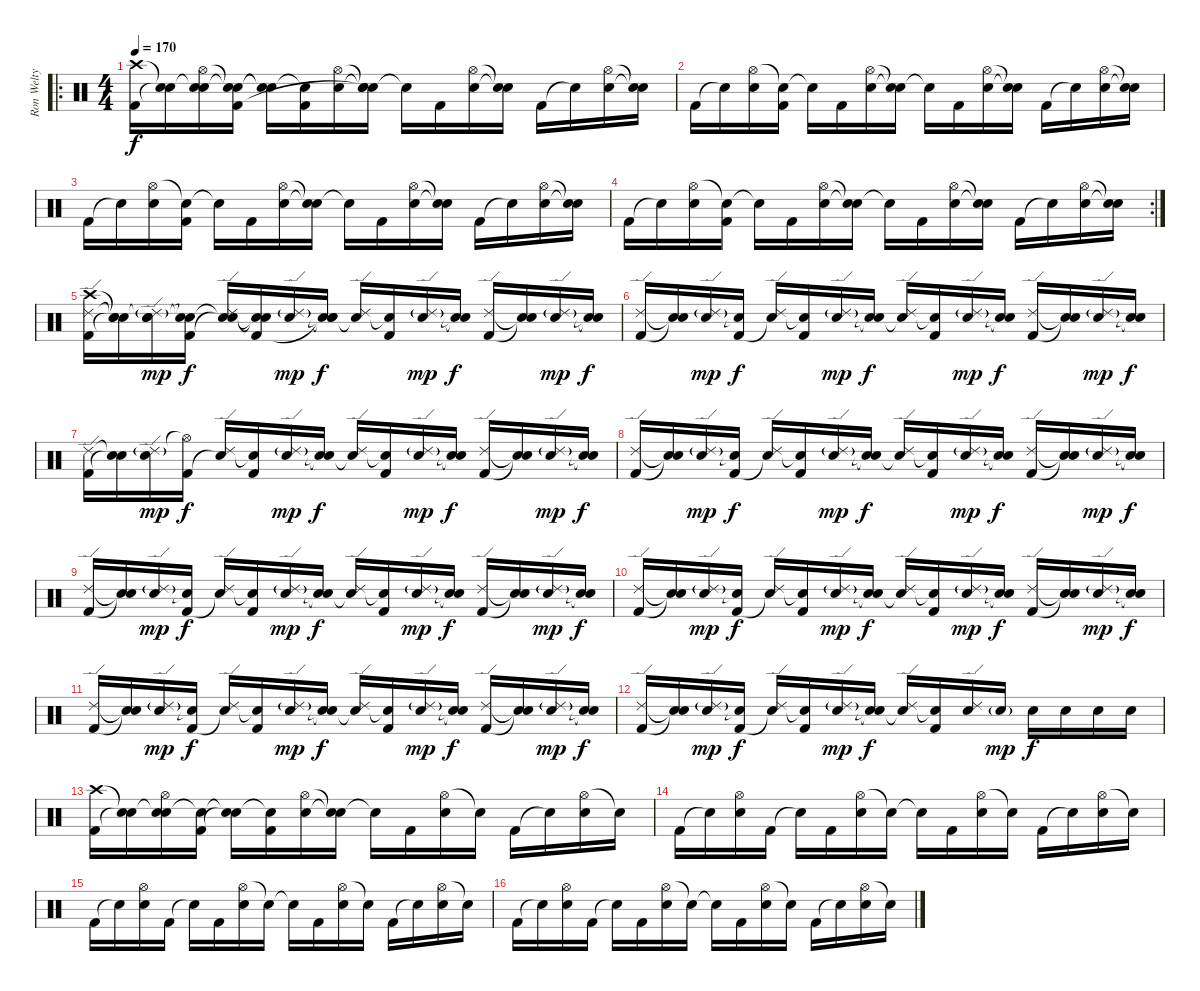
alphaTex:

\track ("Ron Welty" "Ron Welty") {instrument percussion}
\staff {score}
\articulation defaults
\ro
\ts (4 4)
\tempo 170
\clef neutral
\ks c
("Crash high (hit)" "Kick (hit) 2").16{dy f} ("Snare (hit)"{t} "Snare (hit)"{t}).16 ("Snare (hit)"{t} "Hi-Hat (open)" "Electric Snare (hit)").16 ("Snare (hit)"{t} "Snare (hit)"{t} "Kick (hit) 2").16 ("Snare (hit)"{t} "Snare (hit)"{t}).16 ("Snare (hit)"{t} "Kick (hit) 2").16 ("Hi-Hat (open)" "Electric Snare (hit)").16 ("Snare (hit)"{t} "Snare (hit)"{t} "Snare (hit)"{t}).16 "Snare (hit)"{t}.16 "Kick (hit) 2".16 ("Hi-Hat (open)" "Electric Snare (hit)").16 ("Snare (hit)"{t} "Snare (hit)"{t}).16 "Kick (hit) 2".16 "Snare (hit)"{t}.16 ("Hi-Hat (open)" "Electric Snare (hit)").16 ("Snare (hit)"{t} "Snare (hit)"{t}).16 |
"Kick (hit) 2".16 "Snare (hit)"{t}.16 ("Hi-Hat (open)" "Electric Snare (hit)").16 ("Snare (hit)"{t} "Kick (hit) 2").16 "Snare (hit)"{t}.16 "Kick (hit) 2".16 ("Hi-Hat (open)" "Electric Snare (hit)").16 ("Snare (hit)"{t} "Snare (hit)"{t}).16 "Snare (hit)"{t}.16 "Kick (hit) 2".16 ("Hi-Hat (open)" "Electric Snare (hit)").16 ("Snare (hit)"{t} "Snare (hit)"{t}).16 "Kick (hit) 2".16 "Snare (hit)"{t}.16 ("Hi-Hat (open)" "Electric Snare (hit)").16 ("Snare (hit)"{t} "Snare (hit)"{t}).16 |
"Kick (hit) 2".16 "Snare (hit)"{t}.16 ("Hi-Hat (open)" "Electric Snare (hit)").16 ("Snare (hit)"{t} "Kick (hit) 2").16 "Snare (hit)"{t}.16 "Kick (hit) 2".16 ("Hi-Hat (open)" "Electric Snare (hit)").16 ("Snare (hit)"{t} "Snare (hit)"{t}).16 "Snare (hit)"{t}.16 "Kick (hit) 2".16 ("Hi-Hat (open)" "Electric Snare (hit)").16 ("Snare (hit)"{t} "Snare (hit)"{t}).16 "Kick (hit) 2".16 "Snare (hit)"{t}.16 ("Hi-Hat (open)" "Electric Snare (hit)").16 ("Snare (hit)"{t} "Snare (hit)"{t}).16 |
\rc 2 "Kick (hit) 2".16 "Snare (hit)"{t}.16
("Hi-Hat (open)" "Electric Snare (hit)").16 ("Snare (hit)"{t} "Kick (hit) 2").16 "Snare (hit)"{t}.16 "Kick (hit) 2".16 ("Hi-Hat (open)" "Electric Snare (hit)").16 ("Snare (hit)"{t} "Snare (hit)"{t}).16 "Snare (hit)"{t}.16 "Kick (hit) 2".16 ("Hi-Hat (open)" "Electric Snare (hit)").16 ("Snare (hit)"{t} "Snare (hit)"{t}).16 "Kick (hit) 2".16 "Snare (hit)"{t}.16 ("Hi-Hat (open)" "Electric Snare (hit)").16 ("Snare (hit)"{t} "Snare (hit)"{t}).16 |
("Crash high (hit)" "Ride (edge) 2" "Kick (hit) 2").16 ("Snare (hit)"{t} "Snare (hit)"{t} "Snare (hit)"{t}).16 ("Snare (hit)"{t} "Ride (edge) 2"{g} "Electric Snare (hit)").16{dy mp} ("Snare (hit)"{t} "Snare (hit)"{t} "Kick (hit) 2").16{dy f} ("Snare (hit)"{t} "Ride (edge) 2" "Snare (hit)"{t}).16 ("Snare (hit)"{t} "Snare (hit)"{t} "Kick (hit) 2").16 ("Ride (edge) 2"{g} "Electric Snare (hit)").16{dy mp} ("Snare (hit)"{t} "Snare (hit)"{t} "Snare (hit)"{t}).16{dy f} ("Ride (edge) 2" "Snare (hit)"{t}).16 ("Snare (hit)"{t} "Kick (hit) 2").16 ("Ride (edge) 2"{g} "Electric Snare (hit)").16{dy mp} ("Snare (hit)"{t} "Snare (hit)"{t}).16{dy f} ("Ride (edge) 2" "Kick (hit) 2").16 ("Snare (hit)"{t} "Snare (hit)"{t}).16 ("Ride (edge) 2"{g} "Electric Snare (hit)").16{dy mp} ("Snare (hit)"{t} "Snare (hit)"{t}).16{dy f} |
("Ride (edge) 2" "Kick (hit) 2").16 ("Snare (hit)"{t} "Snare (hit)"{t}).16 ("Ride (edge) 2"{g} "Electric Snare (hit)").16{dy mp} ("Snare (hit)"{t} "Kick (hit) 2").16{dy f} ("Ride (edge) 2" "Snare (hit)"{t}).16 ("Snare (hit)"{t} "Kick (hit) 2").16 ("Ride (edge) 2"{g} "Electric Snare (hit)").16{dy mp} ("Snare (hit)"{t} "Snare (hit)"{t}).16{dy f} ("Ride (edge) 2" "Snare (hit)"{t}).16 ("Snare (hit)"{t} "Kick (hit) 2").16 ("Ride (edge) 2"{g} "Electric Snare (hit)").16{dy mp} ("Snare (hit)"{t} "Snare (hit)"{t}).16{dy f} ("Ride (edge) 2" "Kick (hit) 2").16 ("Snare (hit)"{t} "Snare (hit)"{t}).16 ("Ride (edge) 2"{g} "Electric Snare (hit)").16{dy mp} ("Snare (hit)"{t} "Snare (hit)"{t}).16{dy f} |
("Ride (edge) 2" "Kick (hit) 2").16 ("Snare (hit)"{t} "Snare (hit)"{t}).16 ("Ride (edge) 2"{g} "Electric Snare (hit)").16{dy mp} ("Hi-Hat (open)"{t} "Kick (hit) 2").16{dy f} ("Ride (edge) 2" "Snare (hit)"{t}).16 ("Snare (hit)"{t} "Kick (hit) 2").16 ("Ride (edge) 2"{g} "Electric Snare (hit)").16{dy mp} ("Snare (hit)"{t} "Snare (hit)"{t}).16{dy f} ("Ride (edge) 2" "Snare (hit)"{t}).16 ("Snare (hit)"{t} "Kick (hit) 2").16 ("Ride (edge) 2"{g} "Electric Snare (hit)").16{dy mp} ("Snare (hit)"{t} "Snare (hit)"{t}).16{dy f} ("Ride (edge) 2" "Kick (hit) 2").16 ("Snare (hit)"{t} "Snare (hit)"{t}).16 ("Ride (edge) 2"{g} "Electric Snare (hit)").16{dy mp} ("Snare (hit)"{t} "Snare (hit)"{t}).16{dy f} |
("Ride (edge) 2" "Kick (hit) 2").16 ("Snare (hit)"{t} "Snare (hit)"{t}).16 ("Ride (edge) 2"{g} "Electric Snare (hit)").16{dy mp} ("Snare (hit)"{t} "Kick (hit) 2").16{dy f} ("Ride (edge) 2" "Snare (hit)"{t}).16 ("Snare (hit)"{t} "Kick (hit) 2").16 ("Ride (edge) 2"{g} "Electric Snare (hit)").16{dy mp} ("Snare (hit)"{t} "Snare (hit)"{t}).16{dy f} ("Ride (edge) 2" "Snare (hit)"{t}).16 ("Snare (hit)"{t} "Kick (hit) 2").16 ("Ride (edge) 2"{g} "Electric Snare (hit)").16{dy mp} ("Snare (hit)"{t} "Snare (hit)"{t}).16{dy f} ("Ride (edge) 2" "Kick (hit) 2").16 ("Snare (hit)"{t} "Snare (hit)"{t}).16 ("Ride (edge) 2"{g} "Electric Snare (hit)").16{dy mp} ("Snare (hit)"{t} "Snare (hit)"{t}).16{dy f} |
("Ride (edge) 2" "Kick (hit) 2").16 ("Snare (hit)"{t} "Snare (hit)"{t}).16 ("Ride (edge) 2"{g} "Electric Snare (hit)").16{dy mp} ("Snare (hit)"{t} "Kick (hit) 2").16{dy f} ("Ride (edge) 2" "Snare (hit)"{t}).16 ("Snare (hit)"{t} "Kick (hit) 2").16 ("Ride (edge) 2"{g} "Electric Snare (hit)").16{dy mp} ("Snare (hit)"{t} "Snare (hit)"{t}).16{dy f} ("Ride (edge) 2" "Snare (hit)"{t}).16 ("Snare (hit)"{t} "Kick (hit) 2").16 ("Ride (edge) 2"{g} "Electric Snare (hit)").16{dy mp} ("Snare (hit)"{t} "Snare (hit)"{t}).16{dy f} ("Ride (edge) 2" "Kick (hit) 2").16 ("Snare (hit)"{t} "Snare (hit)"{t}).16 ("Ride (edge) 2"{g} "Electric Snare (hit)").16{dy mp} ("Snare (hit)"{t} "Snare (hit)"{t}).16{dy f} |
("Ride (edge) 2" "Kick (hit) 2").16 ("Snare (hit)"{t} "Snare (hit)"{t}).16 ("Ride (edge) 2"{g} "Electric Snare (hit)").16{dy mp} ("Snare (hit)"{t} "Kick (hit) 2").16{dy f} ("Ride (edge) 2" "Snare (hit)"{t}).16 ("Snare (hit)"{t} "Kick (hit) 2").16 ("Ride (edge) 2"{g} "Electric Snare (hit)").16{dy mp} ("Snare (hit)"{t} "Snare (hit)"{t}).16{dy f} ("Ride (edge) 2" "Snare (hit)"{t}).16 ("Snare (hit)"{t} "Kick (hit) 2").16 ("Ride (edge) 2"{g} "Electric Snare (hit)").16{dy mp} ("Snare (hit)"{t} "Snare (hit)"{t}).16{dy f} ("Ride (edge) 2" "Kick (hit) 2").16 ("Snare (hit)"{t} "Snare (hit)"{t}).16 ("Ride (edge) 2"{g} "Electric Snare (hit)").16{dy mp} ("Snare (hit)"{t} "Snare (hit)"{t}).16{dy f} |
("Ride (edge) 2" "Kick (hit) 2").16 ("Snare (hit)"{t} "Snare (hit)"{t}).16 ("Ride (edge) 2"{g} "Electric Snare (hit)").16{dy mp} ("Snare (hit)"{t} "Kick (hit) 2").16{dy f} ("Ride (edge) 2" "Snare (hit)"{t}).16 ("Snare (hit)"{t} "Kick (hit) 2").16 ("Ride (edge) 2"{g} "Electric Snare (hit)").16{dy mp} ("Snare (hit)"{t} "Snare (hit)"{t}).16{dy f} ("Ride (edge) 2" "Snare (hit)"{t}).16 ("Snare (hit)"{t} "Kick (hit) 2").16 ("Ride (edge) 2"{g} "Electric Snare (hit)").16{dy mp} ("Snare (hit)"{t} "Snare (hit)"{t}).16{dy f} ("Ride (edge) 2" "Kick (hit) 2").16 ("Snare (hit)"{t} "Snare (hit)"{t}).16 ("Ride (edge) 2"{g} "Electric Snare (hit)").16{dy mp} ("Snare (hit)"{t} "Snare (hit)"{t}).16{dy f} |
("Ride (edge) 2" "Kick (hit) 2").16 ("Snare (hit)"{t} "Snare (hit)"{t}).16 ("Ride (edge) 2"{g} "Electric Snare (hit)").16{dy mp} ("Snare (hit)"{t} "Kick (hit) 2").16{dy f} ("Ride (edge) 2" "Snare (hit)"{t}).16 ("Snare (hit)"{t} "Kick (hit) 2").16 ("Ride (edge) 2"{g} "Electric Snare (hit)").16{dy mp} ("Snare (hit)"{t} "Snare (hit)"{t}).16{dy f} ("Ride (edge) 2" "Snare (hit)"{t}).16 ("Snare (hit)"{t} "Kick (hit) 2").16 ("Ride (edge) 2" "Electric Snare (hit)").16 "Electric Snare (hit)"{g}.16{dy mp} "Electric Snare (hit)".16{dy f} "Electric Snare (hit)".16 "Electric Snare (hit)".16 "Electric Snare (hit)".16 |
("Crash high (hit)" "Kick (hit) 2").16 ("Snare (hit)"{t} "Snare (hit)"{t}).16 ("Snare (hit)"{t} "Hi-Hat (open)" "Electric Snare (hit)").16 ("Snare (hit)"{t} "Kick (hit) 2").16 ("Snare (hit)"{t} "Snare (hit)"{t}).16 ("Snare (hit)"{t} "Kick (hit) 2").16 ("Hi-Hat (open)" "Electric Snare (hit)").16 ("Snare (hit)"{t} "Snare (hit)"{t}).16 "Snare (hit)"{t}.16 "Kick (hit) 2".16 ("Hi-Hat (open)" "Electric Snare (hit)").16 "Snare (hit)"{t}.16 "Kick (hit) 2".16 "Snare (hit)"{t}.16 ("Hi-Hat (open)" "Electric Snare (hit)").16 "Snare (hit)"{t}.16 |
"Kick (hit) 2".16 "Snare (hit)"{t}.16 ("Hi-Hat (open)" "Electric Snare (hit)").16 "Kick (hit) 2".16 "Snare (hit)"{t}.16 "Kick (hit) 2".16 ("Hi-Hat (open)" "Electric Snare (hit)").16 "Snare (hit)"{t}.16 "Snare (hit)"{t}.16 "Kick (hit) 2".16 ("Hi-Hat (open)" "Electric Snare (hit)").16 "Snare (hit)"{t}.16 "Kick (hit) 2".16 "Snare (hit)"{t}.16 ("Hi-Hat (open)" "Electric Snare (hit)").16 "Snare (hit)"{t}.16 |
"Kick (hit) 2".16 "Snare (hit)"{t}.16 ("Hi-Hat (open)" "Electric Snare (hit)").16 "Kick (hit) 2".16 "Snare (hit)"{t}.16 "Kick (hit) 2".16 ("Hi-Hat (open)" "Electric Snare (hit)").16 "Snare (hit)"{t}.16 "Snare (hit)"{t}.16 "Kick (hit) 2".16 ("Hi-Hat (open)" "Electric Snare (hit)").16 "Snare (hit)"{t}.16 "Kick (hit) 2".16 "Snare (hit)"{t}.16 ("Hi-Hat (open)" "Electric Snare (hit)").16 "Snare (hit)"{t}.16 |
"Kick (hit) 2".16 "Snare (hit)"{t}.16 ("Hi-Hat (open)" "Electric Snare (hit)").16 "Kick (hit) 2".16 "Snare (hit)"{t}.16 "Kick (hit) 2".16 ("Hi-Hat (open)" "Electric Snare (hit)").16 "Snare (hit)"{t}.16 "Snare (hit)"{t}.16 "Kick (hit) 2".16 ("Hi-Hat (open)" "Electric Snare (hit)").16 "Snare (hit)"{t}.16 "Kick (hit) 2".16 "Snare (hit)"{t}.16 ("Hi-Hat (open)" "Electric Snare (hit)").16 "Snare (hit)"{t}.16
